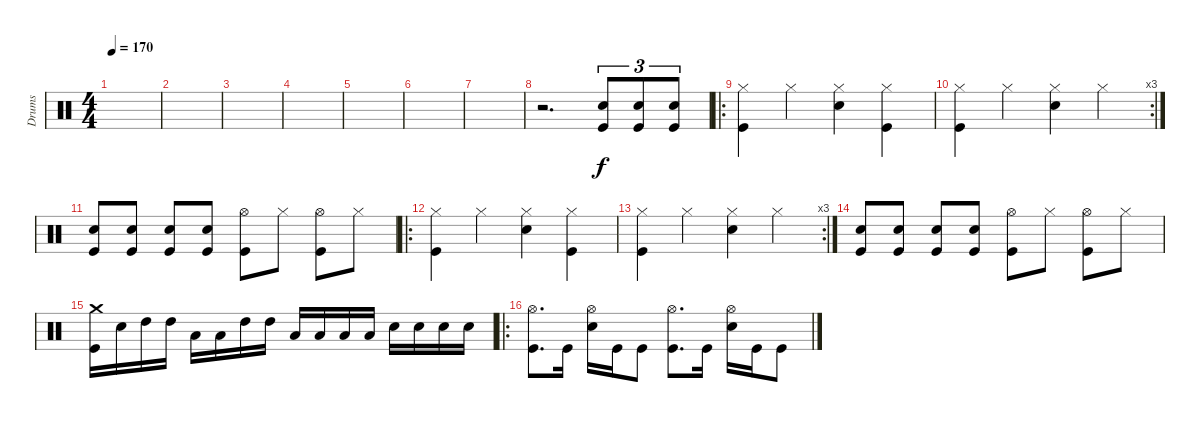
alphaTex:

\track ("Drums" "Drums") {instrument percussion}
\staff {score}
\articulation defaults
\ts (4 4)
\tempo 170
\clef neutral
\ks c
|
|
|
|
|
|
|
r.2{d} ("Snare (hit) 2" "Kick (hit)").8{tu (3 2)} ("Snare (hit) 2" "Kick (hit)").8{tu (3 2)} ("Snare (hit) 2" "Kick (hit)").8{tu (3 2)} |
\ro
("Hi-Hat (closed)" "Kick (hit)").4 "Hi-Hat (closed)".4 ("Hi-Hat (closed)" "Snare (hit) 2").4 ("Hi-Hat (closed)" "Kick (hit)").4 |
\rc 3
("Hi-Hat (closed)" "Kick (hit)").4 "Hi-Hat (closed)".4 ("Hi-Hat (closed)" "Snare (hit) 2").4 "Hi-Hat (closed)".4 |
("Snare (hit) 2" "Kick (hit)").8 ("Snare (hit) 2" "Kick (hit)").8 ("Snare (hit) 2" "Kick (hit)").8 ("Snare (hit) 2" "Kick (hit)").8 ("Hi-Hat (open)" "Kick (hit)").8 "Hi-Hat (closed)".8 ("Hi-Hat (open)" "Kick (hit)").8 "Hi-Hat (closed)".8 |
\ro
("Hi-Hat (closed)" "Kick (hit)").4 "Hi-Hat (closed)".4 ("Hi-Hat (closed)" "Snare (hit) 2").4 ("Hi-Hat (closed)" "Kick (hit)").4 |
\rc 3
("Hi-Hat (closed)" "Kick (hit)").4 "Hi-Hat (closed)".4 ("Hi-Hat (closed)" "Snare (hit) 2").4 "Hi-Hat (closed)".4 |
("Snare (hit) 2" "Kick (hit)").8 ("Snare (hit) 2" "Kick (hit)").8 ("Snare (hit) 2" "Kick (hit)").8 ("Snare (hit) 2" "Kick (hit)").8 ("Hi-Hat (open)" "Kick (hit)").8 "Hi-Hat (closed)".8 ("Hi-Hat (open)" "Kick (hit)").8 "Hi-Hat (closed)".8 |
("Crash medium (hit)" "Kick (hit)").16 "Snare (hit) 2".16 "High Tom (hit)".16 "High Tom (hit)".16 "Low Tom (hit)".16 "Low Tom (hit)".16 "High Tom (hit)".16 "High Tom (hit)".16 "Low Tom (hit)".16 "Low Tom (hit)".16 "Low Floor Tom (hit)".16 "Low Floor Tom (hit)".16 "Snare (hit) 2".16 "Snare (hit) 2".16 "Snare (hit) 2".16 "Snare (hit) 2".16 |
\ro
("Hi-Hat (open)" "Kick (hit)").8{d} "Kick (hit)".16 ("Hi-Hat (open)" "Snare (hit) 2").16 "Kick (hit)".16 "Kick (hit)".8 ("Hi-Hat (open)" "Kick (hit)").8{d} "Kick (hit)".16 ("Hi-Hat (open)" "Snare (hit) 2").16 "Kick (hit)".16 "Kick (hit)".8
